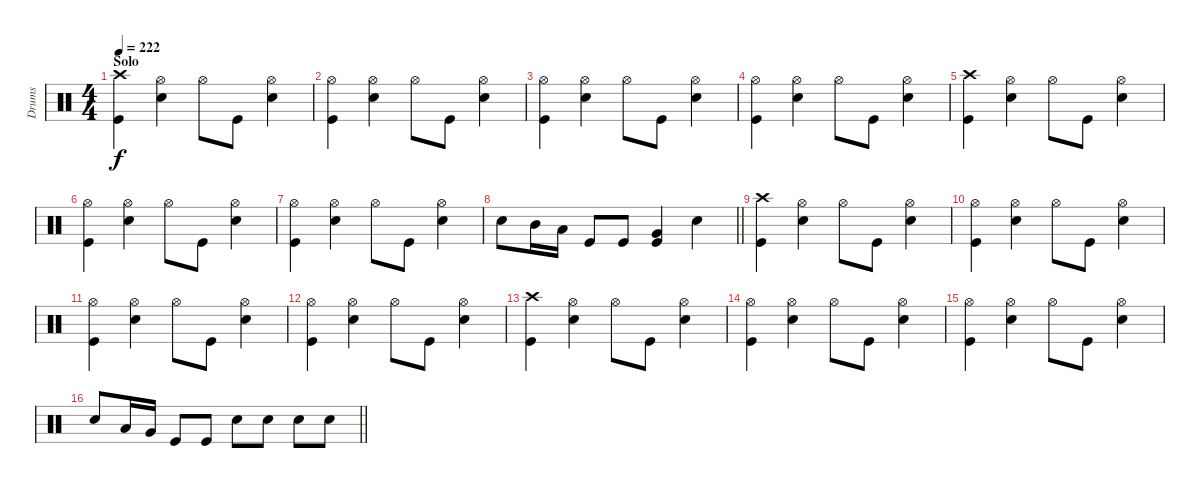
\track ("Drums" "Drums") {instrument percussion}
\staff
\articulation defaults
\ts (4 4)
\section ("" "Solo")
\tempo 222
\clef neutral
\ks c
("Crash high (hit)" "Kick (hit)").4{dy f} ("Hi-Hat (open)" "Electric Snare (hit)").4 "Hi-Hat (open)".8 "Kick (hit)".8 ("Hi-Hat (open)" "Electric Snare (hit)").4 |
("Hi-Hat (open)" "Kick (hit)").4 ("Hi-Hat (open)" "Electric Snare (hit)").4 "Hi-Hat (open)".8 "Kick (hit)".8 ("Hi-Hat (open)" "Electric Snare (hit)").4 |
("Hi-Hat (open)" "Kick (hit)").4 ("Hi-Hat (open)" "Electric Snare (hit)").4 "Hi-Hat (open)".8 "Kick (hit)".8 ("Hi-Hat (open)" "Electric Snare (hit)").4 |
("Hi-Hat (open)" "Kick (hit)").4 ("Hi-Hat (open)" "Electric Snare (hit)").4 "Hi-Hat (open)".8 "Kick (hit)".8 ("Hi-Hat (open)" "Electric Snare (hit)").4 |
("Crash high (hit)" "Kick (hit)").4 ("Hi-Hat (open)" "Electric Snare (hit)").4 "Hi-Hat (open)".8 "Kick (hit)".8 ("Hi-Hat (open)" "Electric Snare (hit)").4 |
("Hi-Hat (open)" "Kick (hit)").4 ("Hi-Hat (open)" "Electric Snare (hit)").4 "Hi-Hat (open)".8 "Kick (hit)".8 ("Hi-Hat (open)" "Electric Snare (hit)").4 |
("Hi-Hat (open)" "Kick (hit)").4 ("Hi-Hat (open)" "Electric Snare (hit)").4 "Hi-Hat (open)".8 "Kick (hit)".8 ("Hi-Hat (open)" "Electric Snare (hit)").4 |
\barLineRight lightlight "Electric Snare (hit)".8 "Mid Tom (hit)".16 "Low Tom (hit)".16 "Kick (hit)".8 "Kick (hit)".8
("Very Low Tom (hit)" "Kick (hit)").4 "Electric Snare (hit)".4 |
("Crash high (hit)" "Kick (hit)").4 ("Hi-Hat (open)" "Electric Snare (hit)").4 "Hi-Hat (open)".8 "Kick (hit)".8 ("Hi-Hat (open)" "Electric Snare (hit)").4 |
("Hi-Hat (open)" "Kick (hit)").4 ("Hi-Hat (open)" "Electric Snare (hit)").4 "Hi-Hat (open)".8 "Kick (hit)".8 ("Hi-Hat (open)" "Electric Snare (hit)").4 |
("Hi-Hat (open)" "Kick (hit)").4 ("Hi-Hat (open)" "Electric Snare (hit)").4 "Hi-Hat (open)".8 "Kick (hit)".8 ("Hi-Hat (open)" "Electric Snare (hit)").4 |
("Hi-Hat (open)" "Kick (hit)").4 ("Hi-Hat (open)" "Electric Snare (hit)").4 "Hi-Hat (open)".8 "Kick (hit)".8 ("Hi-Hat (open)" "Electric Snare (hit)").4 |
("Crash high (hit)" "Kick (hit)").4 ("Hi-Hat (open)" "Electric Snare (hit)").4 "Hi-Hat (open)".8 "Kick (hit)".8 ("Hi-Hat (open)" "Electric Snare (hit)").4 |
("Hi-Hat (open)" "Kick (hit)").4 ("Hi-Hat (open)" "Electric Snare (hit)").4 "Hi-Hat (open)".8 "Kick (hit)".8 ("Hi-Hat (open)" "Electric Snare (hit)").4 |
("Hi-Hat (open)" "Kick (hit)").4 ("Hi-Hat (open)" "Electric Snare (hit)").4 "Hi-Hat (open)".8 "Kick (hit)".8 ("Hi-Hat (open)" "Electric Snare (hit)").4 |
\barLineRight lightlight "Electric Snare (hit)".8 "Low Tom (hit)".16 "Very Low Tom (hit)".16 "Kick (hit)".8 "Kick (hit)".8 "Electric Snare (hit)".8 "Electric Snare (hit)".8 "Electric Snare (hit)".8 "Electric Snare (hit)".8
